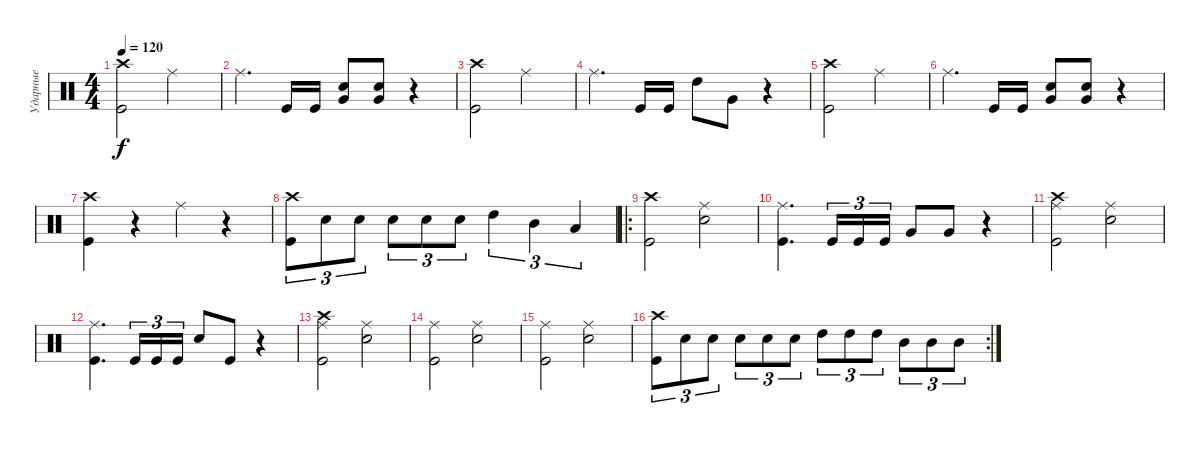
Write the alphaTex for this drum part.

\track ("Ударные" "Ударные") {instrument percussion}
\staff {score}
\articulation defaults
\ts (4 4)
\tempo 120
\clef neutral
\ks c
("Kick (hit)" "Crash high (hit)").2{dy f} "Ride (middle)".2 |
"Ride (middle)".4{d} "Kick (hit)".16 "Kick (hit)".16 ("Very Low Tom (hit)" "Snare (hit) 2").8 ("Very Low Tom (hit)" "Snare (hit) 2").8 r.4 |
("Kick (hit)" "Crash high (hit)").2 "Ride (middle)".2 |
"Ride (middle)".4{d} "Kick (hit)".16 "Kick (hit)".16 "High Tom (hit)".8 "Very Low Tom (hit)".8 r.4 |
("Kick (hit)" "Crash high (hit)").2 "Ride (middle)".2 |
"Ride (middle)".4{d} "Kick (hit)".16 "Kick (hit)".16 ("Very Low Tom (hit)" "Snare (hit) 2").8 ("Very Low Tom (hit)" "Snare (hit) 2").8 r.4 |
("Kick (hit)" "Crash high (hit)").4 r.4 "Ride (middle)".4 r.4 |
("Kick (hit)" "Crash high (hit)").8{tu (3 2)} "Snare (hit) 2".8{tu (3 2)} "Snare (hit) 2".8{tu (3 2)} "Snare (hit) 2".8{tu (3 2)} "Snare (hit) 2".8{tu (3 2)} "Snare (hit) 2".8{tu (3 2)} "High Tom (hit)".4{tu (3 2)} "Mid Tom (hit)".4{tu (3 2)} "Low Tom (hit)".4{tu (3 2)} |
\ro
("Kick (hit)" "Crash high (hit)").2 ("Snare (hit) 2" "Ride (middle)").2 |
("Kick (hit)" "Ride (middle)").4{d} "Kick (hit)".16{tu (3 2)} "Kick (hit)".16{tu (3 2)} "Kick (hit)".16{tu (3 2)} "Very Low Tom (hit)".8 "Very Low Tom (hit)".8 r.4 |
("Kick (hit)" "Ride (middle)" "Crash high (hit)").2 ("Snare (hit) 2" "Ride (middle)").2 |
("Kick (hit)" "Ride (middle)").4{d} "Kick (hit)".16{tu (3 2)} "Kick (hit)".16{tu (3 2)} "Kick (hit)".16{tu (3 2)} "Snare (hit) 2".8 "Kick (hit)".8 r.4 |
("Kick (hit)" "Ride (middle)" "Crash high (hit)").2 ("Snare (hit) 2" "Ride (middle)").2 |
("Kick (hit)" "Ride (middle)").2 ("Snare (hit) 2" "Ride (middle)").2 |
("Kick (hit)" "Ride (middle)").2 ("Snare (hit) 2" "Ride (middle)").2 |
\rc 2
("Kick (hit)" "Crash high (hit)").8{tu (3 2)} "Snare (hit) 2".8{tu (3 2)} "Snare (hit) 2".8{tu (3 2)} "Snare (hit) 2".8{tu (3 2)} "Snare (hit) 2".8{tu (3 2)} "Snare (hit) 2".8{tu (3 2)} "High Tom (hit)".8{tu (3 2)} "High Tom (hit)".8{tu (3 2)} "High Tom (hit)".8{tu (3 2)} "Mid Tom (hit)".8{tu (3 2)} "Mid Tom (hit)".8{tu (3 2)} "Mid Tom (hit)".8{tu (3 2)}
